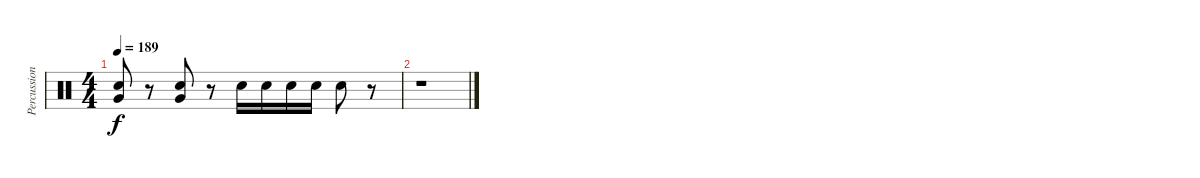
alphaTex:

\track ("Percussion" "Percussion") {instrument percussion}
\staff {score}
\articulation defaults
\ts (4 4)
\tempo 189
\clef neutral
\ks c
("Electric Snare (hit)" "Very Low Tom (hit)").8{dy f} r.8 ("Electric Snare (hit)" "Very Low Tom (hit)").8 r.8 "Electric Snare (hit)".16 "Electric Snare (hit)".16 "Electric Snare (hit)".16 "Electric Snare (hit)".16 "Electric Snare (hit)".8 r.8 |
r.1
